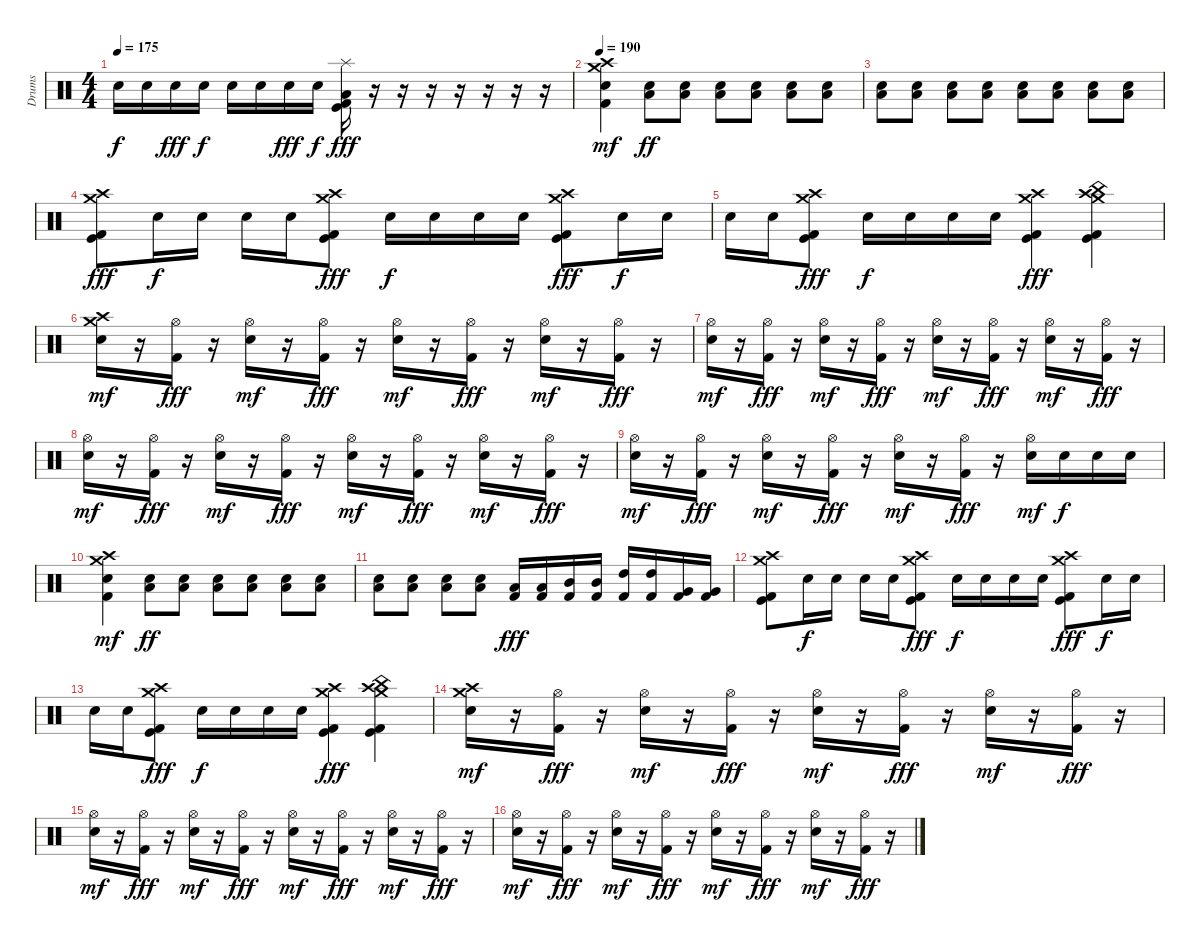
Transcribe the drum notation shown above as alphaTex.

\track ("Drums" "Drums") {instrument percussion}
\staff {score}
\articulation defaults
\ts (4 4)
\tempo 175
\clef neutral
\ks c "Electric Snare (hit)".16{dy f} "Electric Snare (hit)".16 "Electric Snare (hit)".16{dy fff} "Electric Snare (hit)".16{dy f} "Electric Snare (hit)".16 "Electric Snare (hit)".16 "Electric Snare (hit)".16{dy fff} "Electric Snare (hit)".16{dy f}
("Splash (hit)" "Low Floor Tom (hit)" "Kick (hit)" "Kick (hit) 2").16{dy fff} r.16 r.16 r.16 r.16 r.16 r.16 r.16 |
\tempo 190
("Crash high (hit)" "Crash medium (hit)" "Electric Snare (hit)" "Kick (hit) 2").4{dy mf} ("Electric Snare (hit)" "Low Floor Tom (hit)").8{dy ff} ("Electric Snare (hit)" "Low Floor Tom (hit)").8 ("Electric Snare (hit)" "Low Floor Tom (hit)").8 ("Electric Snare (hit)" "Low Floor Tom (hit)").8 ("Electric Snare (hit)" "Low Floor Tom (hit)").8 ("Electric Snare (hit)" "Low Floor Tom (hit)").8 |
("Electric Snare (hit)" "Low Floor Tom (hit)").8 ("Electric Snare (hit)" "Low Floor Tom (hit)").8 ("Electric Snare (hit)" "Low Floor Tom (hit)").8 ("Electric Snare (hit)" "Low Floor Tom (hit)").8 ("Electric Snare (hit)" "Low Floor Tom (hit)").8 ("Electric Snare (hit)" "Low Floor Tom (hit)").8 ("Electric Snare (hit)" "Low Floor Tom (hit)").8 ("Electric Snare (hit)" "Low Floor Tom (hit)").8 |
("Crash medium (hit)" "Crash high (hit)" "Kick (hit)" "Kick (hit) 2").8{dy fff} "Electric Snare (hit)".16{dy f} "Electric Snare (hit)".16 "Electric Snare (hit)".16 "Electric Snare (hit)".16 ("Crash medium (hit)" "Crash high (hit)" "Kick (hit)" "Kick (hit) 2").8{dy fff} "Electric Snare (hit)".16{dy f} "Electric Snare (hit)".16 "Electric Snare (hit)".16 "Electric Snare (hit)".16 ("Crash medium (hit)" "Crash high (hit)" "Kick (hit)" "Kick (hit) 2").8{dy fff} "Electric Snare (hit)".16{dy f} "Electric Snare (hit)".16 |
"Electric Snare (hit)".16 "Electric Snare (hit)".16 ("Crash medium (hit)" "Crash high (hit)" "Kick (hit)" "Kick (hit) 2").8{dy fff} "Electric Snare (hit)".16{dy f} "Electric Snare (hit)".16 "Electric Snare (hit)".16 "Electric Snare (hit)".16 ("Crash medium (hit)" "Crash high (hit)" "Kick (hit)" "Kick (hit) 2").4{dy fff} ("Crash medium (hit)" "Crash high (hit)" "China (hit)" "Kick (hit)" "Kick (hit) 2").4 |
("Crash medium (hit)" "Crash high (hit)" "Electric Snare (hit)").16{dy mf} r.16 ("Hi-Hat (open)" "Kick (hit) 2").16{dy fff} r.16 ("Hi-Hat (open)" "Electric Snare (hit)").16{dy mf} r.16 ("Hi-Hat (open)" "Kick (hit) 2").16{dy fff} r.16 ("Hi-Hat (open)" "Electric Snare (hit)").16{dy mf} r.16 ("Hi-Hat (open)" "Kick (hit) 2").16{dy fff} r.16 ("Hi-Hat (open)" "Electric Snare (hit)").16{dy mf} r.16 ("Hi-Hat (open)" "Kick (hit) 2").16{dy fff} r.16 |
("Hi-Hat (open)" "Electric Snare (hit)").16{dy mf} r.16 ("Hi-Hat (open)" "Kick (hit) 2").16{dy fff} r.16 ("Hi-Hat (open)" "Electric Snare (hit)").16{dy mf} r.16 ("Hi-Hat (open)" "Kick (hit) 2").16{dy fff} r.16 ("Hi-Hat (open)" "Electric Snare (hit)").16{dy mf} r.16 ("Hi-Hat (open)" "Kick (hit) 2").16{dy fff} r.16 ("Hi-Hat (open)" "Electric Snare (hit)").16{dy mf} r.16 ("Hi-Hat (open)" "Kick (hit) 2").16{dy fff} r.16 |
("Hi-Hat (open)" "Electric Snare (hit)").16{dy mf} r.16 ("Hi-Hat (open)" "Kick (hit) 2").16{dy fff} r.16 ("Hi-Hat (open)" "Electric Snare (hit)").16{dy mf} r.16 ("Hi-Hat (open)" "Kick (hit) 2").16{dy fff} r.16 ("Hi-Hat (open)" "Electric Snare (hit)").16{dy mf} r.16 ("Hi-Hat (open)" "Kick (hit) 2").16{dy fff} r.16 ("Hi-Hat (open)" "Electric Snare (hit)").16{dy mf} r.16 ("Hi-Hat (open)" "Kick (hit) 2").16{dy fff} r.16 |
("Hi-Hat (open)" "Electric Snare (hit)").16{dy mf} r.16 ("Hi-Hat (open)" "Kick (hit) 2").16{dy fff} r.16 ("Hi-Hat (open)" "Electric Snare (hit)").16{dy mf} r.16 ("Hi-Hat (open)" "Kick (hit) 2").16{dy fff} r.16 ("Hi-Hat (open)" "Electric Snare (hit)").16{dy mf} r.16 ("Hi-Hat (open)" "Kick (hit) 2").16{dy fff} r.16 ("Hi-Hat (open)" "Electric Snare (hit)").16{dy mf} "Electric Snare (hit)".16{dy f} "Electric Snare (hit)".16 "Electric Snare (hit)".16 |
("Crash high (hit)" "Crash medium (hit)" "Electric Snare (hit)" "Kick (hit) 2").4{dy mf} ("Electric Snare (hit)" "Low Floor Tom (hit)").8{dy ff} ("Electric Snare (hit)" "Low Floor Tom (hit)").8 ("Electric Snare (hit)" "Low Floor Tom (hit)").8 ("Electric Snare (hit)" "Low Floor Tom (hit)").8 ("Electric Snare (hit)" "Low Floor Tom (hit)").8 ("Electric Snare (hit)" "Low Floor Tom (hit)").8 |
("Electric Snare (hit)" "Low Floor Tom (hit)").8 ("Electric Snare (hit)" "Low Floor Tom (hit)").8 ("Electric Snare (hit)" "Low Floor Tom (hit)").8 ("Electric Snare (hit)" "Low Floor Tom (hit)").8 ("Low Tom (hit)" "Kick (hit) 2").16{dy fff} ("Low Tom (hit)" "Kick (hit) 2").16 ("Mid Tom (hit)" "Kick (hit) 2").16 ("Mid Tom (hit)" "Kick (hit) 2").16 ("High Tom (hit)" "Kick (hit) 2").16 ("High Tom (hit)" "Kick (hit) 2").16 ("Very Low Tom (hit)" "Kick (hit) 2").16 ("Very Low Tom (hit)" "Kick (hit) 2").16 |
("Crash medium (hit)" "Crash high (hit)" "Kick (hit)" "Kick (hit) 2").8 "Electric Snare (hit)".16{dy f} "Electric Snare (hit)".16 "Electric Snare (hit)".16 "Electric Snare (hit)".16 ("Crash medium (hit)" "Crash high (hit)" "Kick (hit)" "Kick (hit) 2").8{dy fff} "Electric Snare (hit)".16{dy f} "Electric Snare (hit)".16 "Electric Snare (hit)".16 "Electric Snare (hit)".16 ("Crash medium (hit)" "Crash high (hit)" "Kick (hit)" "Kick (hit) 2").8{dy fff} "Electric Snare (hit)".16{dy f} "Electric Snare (hit)".16 |
"Electric Snare (hit)".16 "Electric Snare (hit)".16 ("Crash medium (hit)" "Crash high (hit)" "Kick (hit)" "Kick (hit) 2").8{dy fff} "Electric Snare (hit)".16{dy f} "Electric Snare (hit)".16 "Electric Snare (hit)".16 "Electric Snare (hit)".16 ("Crash medium (hit)" "Crash high (hit)" "Kick (hit)" "Kick (hit) 2").4{dy fff} ("Crash medium (hit)" "Crash high (hit)" "China (hit)" "Kick (hit)" "Kick (hit) 2").4 |
("Crash medium (hit)" "Crash high (hit)" "Electric Snare (hit)").16{dy mf} r.16 ("Hi-Hat (open)" "Kick (hit) 2").16{dy fff} r.16 ("Hi-Hat (open)" "Electric Snare (hit)").16{dy mf} r.16 ("Hi-Hat (open)" "Kick (hit) 2").16{dy fff} r.16 ("Hi-Hat (open)" "Electric Snare (hit)").16{dy mf} r.16 ("Hi-Hat (open)" "Kick (hit) 2").16{dy fff} r.16 ("Hi-Hat (open)" "Electric Snare (hit)").16{dy mf} r.16 ("Hi-Hat (open)" "Kick (hit) 2").16{dy fff} r.16 |
("Hi-Hat (open)" "Electric Snare (hit)").16{dy mf} r.16 ("Hi-Hat (open)" "Kick (hit) 2").16{dy fff} r.16 ("Hi-Hat (open)" "Electric Snare (hit)").16{dy mf} r.16 ("Hi-Hat (open)" "Kick (hit) 2").16{dy fff} r.16 ("Hi-Hat (open)" "Electric Snare (hit)").16{dy mf} r.16 ("Hi-Hat (open)" "Kick (hit) 2").16{dy fff} r.16 ("Hi-Hat (open)" "Electric Snare (hit)").16{dy mf} r.16 ("Hi-Hat (open)" "Kick (hit) 2").16{dy fff} r.16 |
("Hi-Hat (open)" "Electric Snare (hit)").16{dy mf} r.16 ("Hi-Hat (open)" "Kick (hit) 2").16{dy fff} r.16 ("Hi-Hat (open)" "Electric Snare (hit)").16{dy mf} r.16 ("Hi-Hat (open)" "Kick (hit) 2").16{dy fff} r.16 ("Hi-Hat (open)" "Electric Snare (hit)").16{dy mf} r.16 ("Hi-Hat (open)" "Kick (hit) 2").16{dy fff} r.16 ("Hi-Hat (open)" "Electric Snare (hit)").16{dy mf} r.16 ("Hi-Hat (open)" "Kick (hit) 2").16{dy fff} r.16
